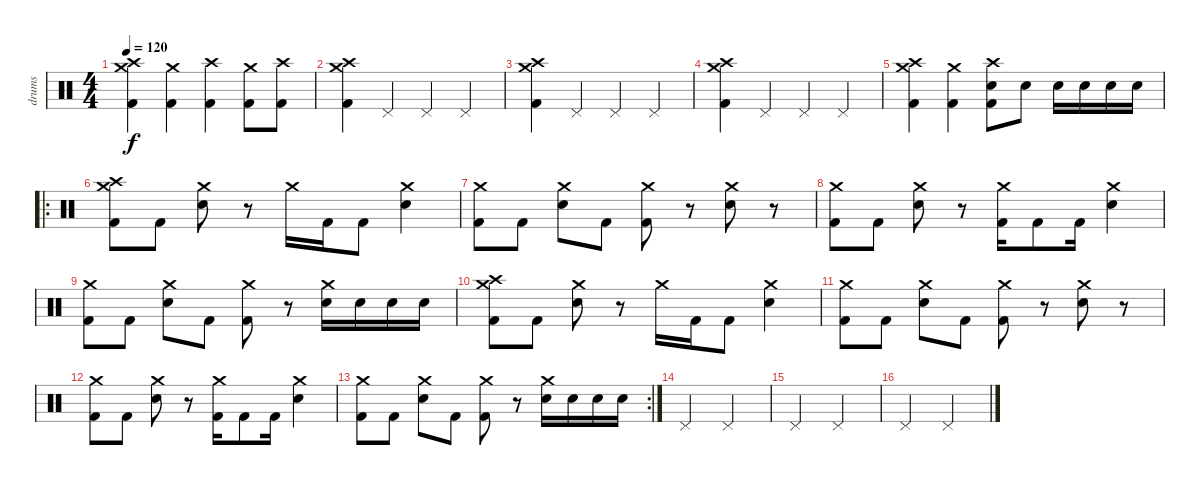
\track ("drums" "drums") {instrument percussion}
\staff {score}
\articulation defaults
\ts (4 4)
\tempo 120
\clef neutral
\ks c
("Crash medium (hit)" "Crash high (hit)" "Kick (hit) 2").4{dy f} ("Crash medium (hit)" "Kick (hit) 2").4 ("Crash high (hit)" "Kick (hit) 2").4 ("Crash medium (hit)" "Kick (hit) 2").8 ("Crash high (hit)" "Kick (hit) 2").8 |
("Crash medium (hit)" "Crash high (hit)" "Kick (hit) 2").4 "Pedal Hi-Hat (hit)".4 "Pedal Hi-Hat (hit)".4 "Pedal Hi-Hat (hit)".4 |
("Crash medium (hit)" "Crash high (hit)" "Kick (hit) 2").4 "Pedal Hi-Hat (hit)".4 "Pedal Hi-Hat (hit)".4 "Pedal Hi-Hat (hit)".4 |
("Crash medium (hit)" "Crash high (hit)" "Kick (hit) 2").4 "Pedal Hi-Hat (hit)".4 "Pedal Hi-Hat (hit)".4 "Pedal Hi-Hat (hit)".4 |
("Crash medium (hit)" "Crash high (hit)" "Kick (hit) 2").4 ("Crash medium (hit)" "Kick (hit) 2").4 ("Crash high (hit)" "Electric Snare (hit)" "Kick (hit) 2").8 "Electric Snare (hit)".8 "Electric Snare (hit)".16 "Electric Snare (hit)".16 "Electric Snare (hit)".16 "Electric Snare (hit)".16 |
\ro
("Crash medium (hit)" "Crash high (hit)" "Kick (hit) 2").8 "Kick (hit) 2".8 ("Crash medium (hit)" "Electric Snare (hit)").8 r.8 "Crash medium (hit)".16 "Kick (hit) 2".16 "Kick (hit) 2".8 ("Crash medium (hit)" "Electric Snare (hit)").4 |
("Crash medium (hit)" "Kick (hit) 2").8 "Kick (hit) 2".8 ("Crash medium (hit)" "Electric Snare (hit)").8 "Kick (hit) 2".8 ("Crash medium (hit)" "Kick (hit) 2").8 r.8 ("Crash medium (hit)" "Electric Snare (hit)").8 r.8 |
("Crash medium (hit)" "Kick (hit) 2").8 "Kick (hit) 2".8 ("Crash medium (hit)" "Electric Snare (hit)").8 r.8 ("Crash medium (hit)" "Kick (hit) 2").16 "Kick (hit) 2".8 "Kick (hit) 2".16 ("Crash medium (hit)" "Electric Snare (hit)").4 |
("Crash medium (hit)" "Kick (hit) 2").8 "Kick (hit) 2".8 ("Crash medium (hit)" "Electric Snare (hit)").8 "Kick (hit) 2".8 ("Crash medium (hit)" "Kick (hit) 2").8 r.8 ("Crash medium (hit)" "Electric Snare (hit)").16 "Electric Snare (hit)".16 "Electric Snare (hit)".16 "Electric Snare (hit)".16 |
("Crash medium (hit)" "Crash high (hit)" "Kick (hit) 2").8 "Kick (hit) 2".8 ("Crash medium (hit)" "Electric Snare (hit)").8 r.8 "Crash medium (hit)".16 "Kick (hit) 2".16 "Kick (hit) 2".8 ("Crash medium (hit)" "Electric Snare (hit)").4 |
("Crash medium (hit)" "Kick (hit) 2").8 "Kick (hit) 2".8 ("Crash medium (hit)" "Electric Snare (hit)").8 "Kick (hit) 2".8 ("Crash medium (hit)" "Kick (hit) 2").8 r.8 ("Crash medium (hit)" "Electric Snare (hit)").8 r.8 |
("Crash medium (hit)" "Kick (hit) 2").8 "Kick (hit) 2".8 ("Crash medium (hit)" "Electric Snare (hit)").8 r.8 ("Crash medium (hit)" "Kick (hit) 2").16 "Kick (hit) 2".8 "Kick (hit) 2".16 ("Crash medium (hit)" "Electric Snare (hit)").4 |
\rc 2
("Crash medium (hit)" "Kick (hit) 2").8 "Kick (hit) 2".8 ("Crash medium (hit)" "Electric Snare (hit)").8 "Kick (hit) 2".8 ("Crash medium (hit)" "Kick (hit) 2").8 r.8 ("Crash medium (hit)" "Electric Snare (hit)").16 "Electric Snare (hit)".16 "Electric Snare (hit)".16 "Electric Snare (hit)".16 |
"Pedal Hi-Hat (hit)".2 "Pedal Hi-Hat (hit)".2 |
"Pedal Hi-Hat (hit)".2 "Pedal Hi-Hat (hit)".2 |
"Pedal Hi-Hat (hit)".2 "Pedal Hi-Hat (hit)".2
